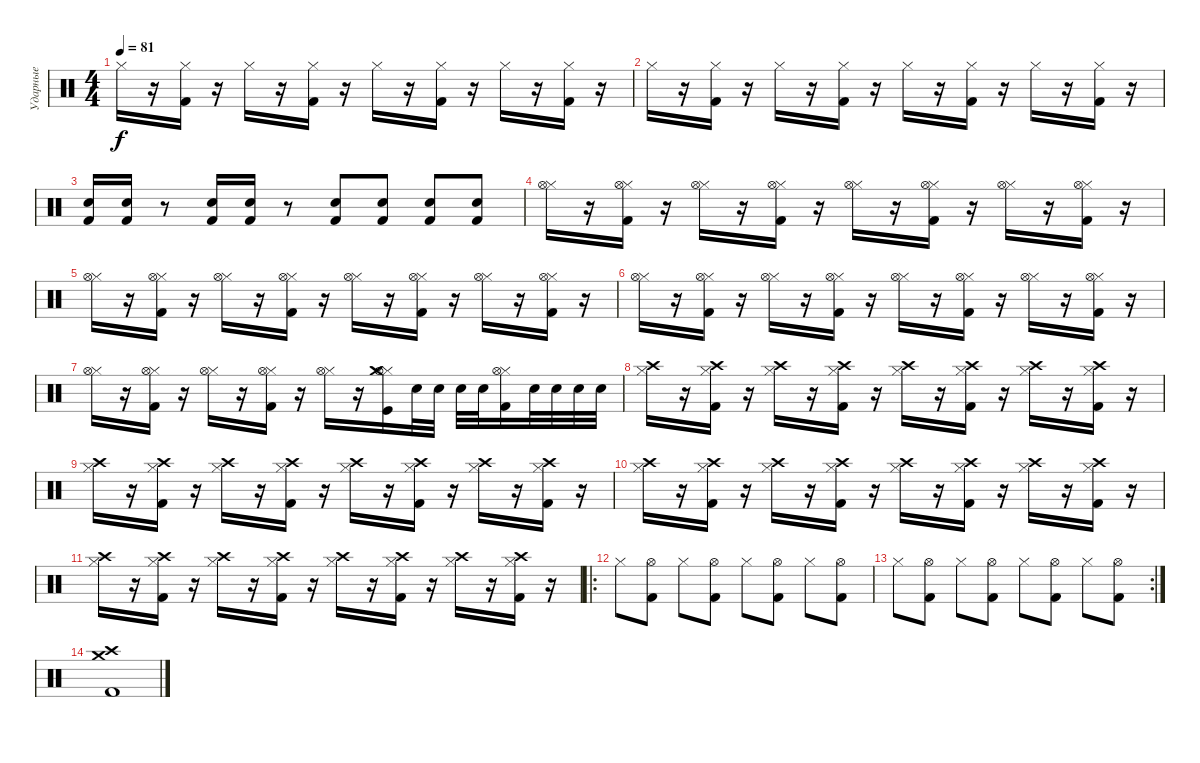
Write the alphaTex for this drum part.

\track ("Ударные" "Ударные") {instrument percussion}
\staff {score}
\articulation defaults
\ts (4 4)
\tempo 81
\clef neutral
\ks c "Hi-Hat (closed)".16{dy f}
r.16 ("Kick (hit) 2" "Hi-Hat (closed)").16 r.16 "Hi-Hat (closed)".16 r.16 ("Kick (hit) 2" "Hi-Hat (closed)").16 r.16 "Hi-Hat (closed)".16 r.16 ("Kick (hit) 2" "Hi-Hat (closed)").16 r.16 "Hi-Hat (closed)".16 r.16 ("Kick (hit) 2" "Hi-Hat (closed)").16 r.16 |
"Hi-Hat (closed)".16 r.16 ("Kick (hit) 2" "Hi-Hat (closed)").16 r.16 "Hi-Hat (closed)".16 r.16 ("Kick (hit) 2" "Hi-Hat (closed)").16 r.16 "Hi-Hat (closed)".16 r.16 ("Kick (hit) 2" "Hi-Hat (closed)").16 r.16 "Hi-Hat (closed)".16 r.16 ("Kick (hit) 2" "Hi-Hat (closed)").16 r.16 |
("Snare (hit) 2" "Kick (hit) 2").16 ("Snare (hit) 2" "Kick (hit) 2").16 r.8 ("Snare (hit) 2" "Kick (hit) 2").16 ("Snare (hit) 2" "Kick (hit) 2").16 r.8 ("Snare (hit) 2" "Kick (hit) 2").8 ("Snare (hit) 2" "Kick (hit) 2").8 ("Snare (hit) 2" "Kick (hit) 2").8 ("Snare (hit) 2" "Kick (hit) 2").8 |
("Hi-Hat (closed)" "Hi-Hat (open)").16 r.16 ("Hi-Hat (closed)" "Kick (hit) 2" "Hi-Hat (open)").16 r.16 ("Hi-Hat (closed)" "Hi-Hat (open)").16 r.16 ("Hi-Hat (closed)" "Kick (hit) 2" "Hi-Hat (open)").16 r.16 ("Hi-Hat (closed)" "Hi-Hat (open)").16 r.16 ("Hi-Hat (closed)" "Kick (hit) 2" "Hi-Hat (open)").16 r.16 ("Hi-Hat (closed)" "Hi-Hat (open)").16 r.16 ("Hi-Hat (closed)" "Kick (hit) 2" "Hi-Hat (open)").16 r.16 |
("Hi-Hat (closed)" "Hi-Hat (open)").16 r.16 ("Hi-Hat (closed)" "Kick (hit) 2" "Hi-Hat (open)").16 r.16 ("Hi-Hat (closed)" "Hi-Hat (open)").16 r.16 ("Hi-Hat (closed)" "Kick (hit) 2" "Hi-Hat (open)").16 r.16 ("Hi-Hat (closed)" "Hi-Hat (open)").16 r.16 ("Hi-Hat (closed)" "Kick (hit) 2" "Hi-Hat (open)").16 r.16 ("Hi-Hat (closed)" "Hi-Hat (open)").16 r.16 ("Hi-Hat (closed)" "Kick (hit) 2" "Hi-Hat (open)").16 r.16 |
("Hi-Hat (closed)" "Hi-Hat (open)").16 r.16 ("Hi-Hat (closed)" "Kick (hit) 2" "Hi-Hat (open)").16 r.16 ("Hi-Hat (closed)" "Hi-Hat (open)").16 r.16 ("Hi-Hat (closed)" "Kick (hit) 2" "Hi-Hat (open)").16 r.16 ("Hi-Hat (closed)" "Hi-Hat (open)").16 r.16 ("Hi-Hat (closed)" "Kick (hit) 2" "Hi-Hat (open)").16 r.16 ("Hi-Hat (closed)" "Hi-Hat (open)").16 r.16 ("Hi-Hat (closed)" "Kick (hit) 2" "Hi-Hat (open)").16 r.16 |
("Hi-Hat (closed)" "Hi-Hat (open)").16 r.16 ("Hi-Hat (closed)" "Kick (hit) 2" "Hi-Hat (open)").16 r.16 ("Hi-Hat (closed)" "Hi-Hat (open)").16 r.16 ("Hi-Hat (closed)" "Kick (hit) 2" "Hi-Hat (open)").16 r.16 ("Hi-Hat (closed)" "Hi-Hat (open)").16 r.16 ("Hi-Hat (closed)" "Kick (hit)" "Hi-Hat (open)" "Crash medium (hit)").16 "Snare (hit) 2".32 "Snare (hit) 2".32 "Snare (hit) 2".32 "Snare (hit) 2".32 ("Hi-Hat (closed)" "Kick (hit) 2" "Hi-Hat (open)").16 "Snare (hit) 2".32 "Snare (hit) 2".32 "Snare (hit) 2".32 "Snare (hit) 2".32 |
("Hi-Hat (closed)" "Crash high (hit)").16 r.16 ("Hi-Hat (closed)" "Kick (hit) 2" "Crash high (hit)").16 r.16 ("Hi-Hat (closed)" "Crash high (hit)").16 r.16 ("Hi-Hat (closed)" "Kick (hit) 2" "Crash high (hit)").16 r.16 ("Hi-Hat (closed)" "Crash high (hit)").16 r.16 ("Hi-Hat (closed)" "Kick (hit) 2" "Crash high (hit)").16 r.16 ("Hi-Hat (closed)" "Crash high (hit)").16 r.16 ("Hi-Hat (closed)" "Kick (hit) 2" "Crash high (hit)").16 r.16 |
("Hi-Hat (closed)" "Crash high (hit)").16 r.16 ("Hi-Hat (closed)" "Kick (hit) 2" "Crash high (hit)").16 r.16 ("Hi-Hat (closed)" "Crash high (hit)").16 r.16 ("Hi-Hat (closed)" "Kick (hit) 2" "Crash high (hit)").16 r.16 ("Hi-Hat (closed)" "Crash high (hit)").16 r.16 ("Hi-Hat (closed)" "Kick (hit) 2" "Crash high (hit)").16 r.16 ("Hi-Hat (closed)" "Crash high (hit)").16 r.16 ("Hi-Hat (closed)" "Kick (hit) 2" "Crash high (hit)").16 r.16 |
("Hi-Hat (closed)" "Crash high (hit)").16 r.16 ("Hi-Hat (closed)" "Kick (hit) 2" "Crash high (hit)").16 r.16 ("Hi-Hat (closed)" "Crash high (hit)").16 r.16 ("Hi-Hat (closed)" "Kick (hit) 2" "Crash high (hit)").16 r.16 ("Hi-Hat (closed)" "Crash high (hit)").16 r.16 ("Hi-Hat (closed)" "Kick (hit) 2" "Crash high (hit)").16 r.16 ("Hi-Hat (closed)" "Crash high (hit)").16 r.16 ("Hi-Hat (closed)" "Kick (hit) 2" "Crash high (hit)").16 r.16 |
("Hi-Hat (closed)" "Crash high (hit)").16 r.16 ("Hi-Hat (closed)" "Kick (hit) 2" "Crash high (hit)").16 r.16 ("Hi-Hat (closed)" "Crash high (hit)").16 r.16 ("Hi-Hat (closed)" "Kick (hit) 2" "Crash high (hit)").16 r.16 ("Hi-Hat (closed)" "Crash high (hit)").16 r.16 ("Hi-Hat (closed)" "Kick (hit) 2" "Crash high (hit)").16 r.16 ("Hi-Hat (closed)" "Crash high (hit)").16 r.16 ("Hi-Hat (closed)" "Kick (hit) 2" "Crash high (hit)").16 r.16 |
\ro "Hi-Hat (closed)".8
("Hi-Hat (open)" "Kick (hit) 2").8 "Hi-Hat (closed)".8 ("Hi-Hat (open)" "Kick (hit) 2").8 "Hi-Hat (closed)".8 ("Hi-Hat (open)" "Kick (hit) 2").8 "Hi-Hat (closed)".8 ("Hi-Hat (open)" "Kick (hit) 2").8 |
\rc 2 "Hi-Hat (closed)".8
("Hi-Hat (open)" "Kick (hit) 2").8 "Hi-Hat (closed)".8 ("Hi-Hat (open)" "Kick (hit) 2").8 "Hi-Hat (closed)".8 ("Hi-Hat (open)" "Kick (hit) 2").8 "Hi-Hat (closed)".8 ("Hi-Hat (open)" "Kick (hit) 2").8 |
("Kick (hit) 2" "Crash high (hit)" "Crash medium (hit)").1
